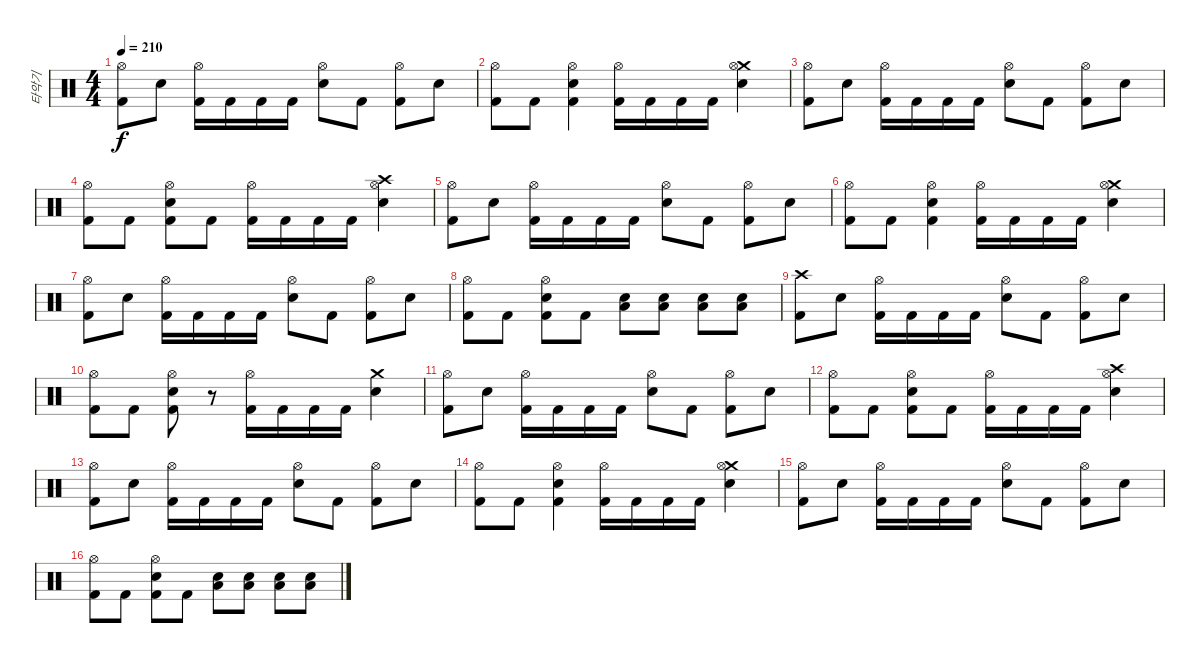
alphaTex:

\track ("타악기" "타악기") {instrument percussion}
\staff {score}
\articulation defaults
\ts (4 4)
\tempo 210
\clef neutral
\ks c
("Hi-Hat (open)" "Kick (hit) 2").8{dy f} "Snare (hit) 2".8 ("Hi-Hat (open)" "Kick (hit) 2").16 "Kick (hit) 2".16 "Kick (hit) 2".16 "Kick (hit) 2".16 ("Hi-Hat (open)" "Snare (hit) 2").8 "Kick (hit) 2".8 ("Hi-Hat (open)" "Kick (hit) 2").8 "Snare (hit) 2".8 |
("Hi-Hat (open)" "Kick (hit) 2").8 "Kick (hit) 2".8 ("Hi-Hat (open)" "Snare (hit) 2" "Kick (hit) 2").4 ("Hi-Hat (open)" "Kick (hit) 2").16 "Kick (hit) 2".16 "Kick (hit) 2".16 "Kick (hit) 2".16 ("Crash medium (hit)" "Hi-Hat (open)" "Snare (hit) 2").4 |
("Hi-Hat (open)" "Kick (hit) 2").8 "Snare (hit) 2".8 ("Hi-Hat (open)" "Kick (hit) 2").16 "Kick (hit) 2".16 "Kick (hit) 2".16 "Kick (hit) 2".16 ("Hi-Hat (open)" "Snare (hit) 2").8 "Kick (hit) 2".8 ("Hi-Hat (open)" "Kick (hit) 2").8 "Snare (hit) 2".8 |
("Hi-Hat (open)" "Kick (hit) 2").8 "Kick (hit) 2".8 ("Hi-Hat (open)" "Snare (hit) 2" "Kick (hit) 2").8 "Kick (hit) 2".8 ("Hi-Hat (open)" "Kick (hit) 2").16 "Kick (hit) 2".16 "Kick (hit) 2".16 "Kick (hit) 2".16 ("Crash high (hit)" "Hi-Hat (open)" "Snare (hit) 2").4 |
("Hi-Hat (open)" "Kick (hit) 2").8 "Snare (hit) 2".8 ("Hi-Hat (open)" "Kick (hit) 2").16 "Kick (hit) 2".16 "Kick (hit) 2".16 "Kick (hit) 2".16 ("Hi-Hat (open)" "Snare (hit) 2").8 "Kick (hit) 2".8 ("Hi-Hat (open)" "Kick (hit) 2").8 "Snare (hit) 2".8 |
("Hi-Hat (open)" "Kick (hit) 2").8 "Kick (hit) 2".8 ("Hi-Hat (open)" "Snare (hit) 2" "Kick (hit) 2").4 ("Hi-Hat (open)" "Kick (hit) 2").16 "Kick (hit) 2".16 "Kick (hit) 2".16 "Kick (hit) 2".16 ("Crash medium (hit)" "Hi-Hat (open)" "Snare (hit) 2").4 |
("Hi-Hat (open)" "Kick (hit) 2").8 "Snare (hit) 2".8 ("Hi-Hat (open)" "Kick (hit) 2").16 "Kick (hit) 2".16 "Kick (hit) 2".16 "Kick (hit) 2".16 ("Hi-Hat (open)" "Snare (hit) 2").8 "Kick (hit) 2".8 ("Hi-Hat (open)" "Kick (hit) 2").8 "Snare (hit) 2".8 |
("Hi-Hat (open)" "Kick (hit) 2").8 "Kick (hit) 2".8 ("Hi-Hat (open)" "Snare (hit) 2" "Kick (hit) 2").8 "Kick (hit) 2".8 ("Low Tom (hit)" "Snare (hit) 2").8 ("Low Tom (hit)" "Snare (hit) 2").8 ("Low Tom (hit)" "Snare (hit) 2").8 ("Low Tom (hit)" "Snare (hit) 2").8 |
("Crash high (hit)" "Kick (hit) 2").8 "Snare (hit) 2".8 ("Hi-Hat (open)" "Kick (hit) 2").16 "Kick (hit) 2".16 "Kick (hit) 2".16 "Kick (hit) 2".16 ("Hi-Hat (open)" "Snare (hit) 2").8 "Kick (hit) 2".8 ("Hi-Hat (open)" "Kick (hit) 2").8 "Snare (hit) 2".8 |
("Hi-Hat (open)" "Kick (hit) 2").8 "Kick (hit) 2".8 ("Hi-Hat (open)" "Snare (hit) 2" "Kick (hit) 2").8 r.8 ("Hi-Hat (open)" "Kick (hit) 2").16 "Kick (hit) 2".16 "Kick (hit) 2".16 "Kick (hit) 2".16 ("Crash medium (hit)" "Snare (hit) 2").4 |
("Hi-Hat (open)" "Kick (hit) 2").8 "Snare (hit) 2".8 ("Hi-Hat (open)" "Kick (hit) 2").16 "Kick (hit) 2".16 "Kick (hit) 2".16 "Kick (hit) 2".16 ("Hi-Hat (open)" "Snare (hit) 2").8 "Kick (hit) 2".8 ("Hi-Hat (open)" "Kick (hit) 2").8 "Snare (hit) 2".8 |
("Hi-Hat (open)" "Kick (hit) 2").8 "Kick (hit) 2".8 ("Hi-Hat (open)" "Snare (hit) 2" "Kick (hit) 2").8 "Kick (hit) 2".8 ("Hi-Hat (open)" "Kick (hit) 2").16 "Kick (hit) 2".16 "Kick (hit) 2".16 "Kick (hit) 2".16 ("Crash high (hit)" "Hi-Hat (open)" "Snare (hit) 2").4 |
("Hi-Hat (open)" "Kick (hit) 2").8 "Snare (hit) 2".8 ("Hi-Hat (open)" "Kick (hit) 2").16 "Kick (hit) 2".16 "Kick (hit) 2".16 "Kick (hit) 2".16 ("Hi-Hat (open)" "Snare (hit) 2").8 "Kick (hit) 2".8 ("Hi-Hat (open)" "Kick (hit) 2").8 "Snare (hit) 2".8 |
("Hi-Hat (open)" "Kick (hit) 2").8 "Kick (hit) 2".8 ("Hi-Hat (open)" "Snare (hit) 2" "Kick (hit) 2").4 ("Hi-Hat (open)" "Kick (hit) 2").16 "Kick (hit) 2".16 "Kick (hit) 2".16 "Kick (hit) 2".16 ("Crash medium (hit)" "Hi-Hat (open)" "Snare (hit) 2").4 |
("Hi-Hat (open)" "Kick (hit) 2").8 "Snare (hit) 2".8 ("Hi-Hat (open)" "Kick (hit) 2").16 "Kick (hit) 2".16 "Kick (hit) 2".16 "Kick (hit) 2".16 ("Hi-Hat (open)" "Snare (hit) 2").8 "Kick (hit) 2".8 ("Hi-Hat (open)" "Kick (hit) 2").8 "Snare (hit) 2".8 |
("Hi-Hat (open)" "Kick (hit) 2").8 "Kick (hit) 2".8 ("Hi-Hat (open)" "Snare (hit) 2" "Kick (hit) 2").8 "Kick (hit) 2".8 ("Low Tom (hit)" "Snare (hit) 2").8 ("Low Tom (hit)" "Snare (hit) 2").8 ("Low Tom (hit)" "Snare (hit) 2").8 ("Low Tom (hit)" "Snare (hit) 2").8
